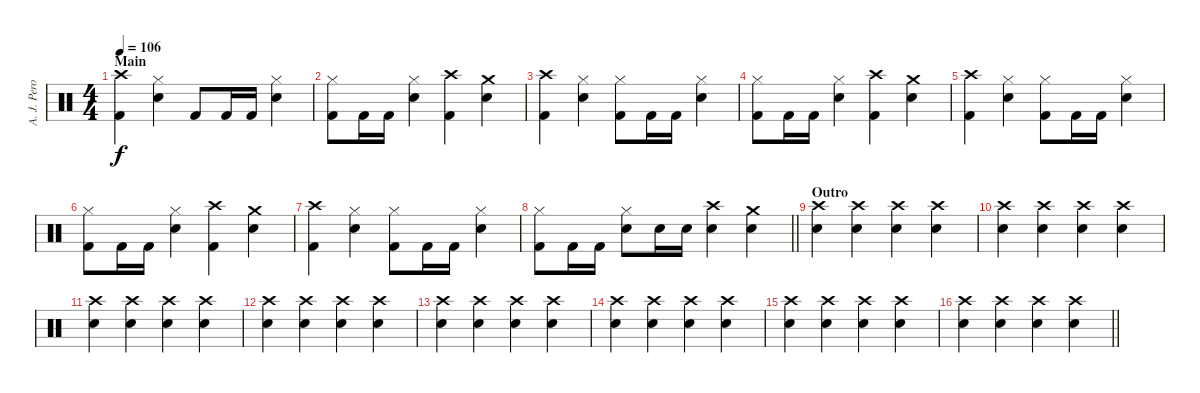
\track ("A. J. Pero" "A. J. Pero") {instrument percussion}
\staff {score}
\articulation defaults
\ts (4 4)
\section ("" "Main")
\tempo 106
\clef neutral
\ks c
("Crash high (hit)" "Kick (hit) 2").4{dy f} ("Hi-Hat (closed)" "Snare (hit) 2").4 "Kick (hit) 2".8 "Kick (hit) 2".16 "Kick (hit) 2".16 ("Hi-Hat (closed)" "Snare (hit) 2").4 |
("Hi-Hat (closed)" "Kick (hit) 2").8 "Kick (hit) 2".16 "Kick (hit) 2".16 ("Hi-Hat (closed)" "Snare (hit) 2").4 ("Crash high (hit)" "Kick (hit) 2").4 ("Crash medium (hit)" "Snare (hit) 2").4 |
("Crash high (hit)" "Kick (hit) 2").4 ("Hi-Hat (closed)" "Snare (hit) 2").4 ("Hi-Hat (closed)" "Kick (hit) 2").8 "Kick (hit) 2".16 "Kick (hit) 2".16 ("Hi-Hat (closed)" "Snare (hit) 2").4 |
("Hi-Hat (closed)" "Kick (hit) 2").8 "Kick (hit) 2".16 "Kick (hit) 2".16 ("Hi-Hat (closed)" "Snare (hit) 2").4 ("Crash high (hit)" "Kick (hit) 2").4 ("Crash medium (hit)" "Snare (hit) 2").4 |
("Crash high (hit)" "Kick (hit) 2").4 ("Hi-Hat (closed)" "Snare (hit) 2").4 ("Hi-Hat (closed)" "Kick (hit) 2").8 "Kick (hit) 2".16 "Kick (hit) 2".16 ("Hi-Hat (closed)" "Snare (hit) 2").4 |
("Hi-Hat (closed)" "Kick (hit) 2").8 "Kick (hit) 2".16 "Kick (hit) 2".16 ("Hi-Hat (closed)" "Snare (hit) 2").4 ("Crash high (hit)" "Kick (hit) 2").4 ("Crash medium (hit)" "Snare (hit) 2").4 |
("Crash high (hit)" "Kick (hit) 2").4 ("Hi-Hat (closed)" "Snare (hit) 2").4 ("Hi-Hat (closed)" "Kick (hit) 2").8 "Kick (hit) 2".16 "Kick (hit) 2".16 ("Hi-Hat (closed)" "Snare (hit) 2").4 |
\barLineRight lightlight
("Hi-Hat (closed)" "Kick (hit) 2").8 "Kick (hit) 2".16 "Kick (hit) 2".16 ("Hi-Hat (closed)" "Snare (hit) 2").8 "Snare (hit) 2".16 "Snare (hit) 2".16 ("Crash high (hit)" "Snare (hit) 2").4 ("Crash medium (hit)" "Snare (hit) 2").4 |
\section ("" "Outro")
("Crash high (hit)" "Snare (hit) 2").4{volume 9} ("Crash high (hit)" "Snare (hit) 2").4 ("Crash high (hit)" "Snare (hit) 2").4 ("Crash high (hit)" "Snare (hit) 2").4 |
("Crash high (hit)" "Snare (hit) 2").4 ("Crash high (hit)" "Snare (hit) 2").4 ("Crash high (hit)" "Snare (hit) 2").4 ("Crash high (hit)" "Snare (hit) 2").4 |
("Crash high (hit)" "Snare (hit) 2").4{volume 10} ("Crash high (hit)" "Snare (hit) 2").4 ("Crash high (hit)" "Snare (hit) 2").4 ("Crash high (hit)" "Snare (hit) 2").4 |
("Crash high (hit)" "Snare (hit) 2").4 ("Crash high (hit)" "Snare (hit) 2").4 ("Crash high (hit)" "Snare (hit) 2").4 ("Crash high (hit)" "Snare (hit) 2").4 |
("Crash high (hit)" "Snare (hit) 2").4{volume 4} ("Crash high (hit)" "Snare (hit) 2").4 ("Crash high (hit)" "Snare (hit) 2").4 ("Crash high (hit)" "Snare (hit) 2").4 |
("Crash high (hit)" "Snare (hit) 2").4 ("Crash high (hit)" "Snare (hit) 2").4 ("Crash high (hit)" "Snare (hit) 2").4 ("Crash high (hit)" "Snare (hit) 2").4 |
("Crash high (hit)" "Snare (hit) 2").4{volume 5} ("Crash high (hit)" "Snare (hit) 2").4 ("Crash high (hit)" "Snare (hit) 2").4 ("Crash high (hit)" "Snare (hit) 2").4 |
\barLineRight lightlight
("Crash high (hit)" "Snare (hit) 2").4 ("Crash high (hit)" "Snare (hit) 2").4 ("Crash high (hit)" "Snare (hit) 2").4 ("Crash high (hit)" "Snare (hit) 2").4
